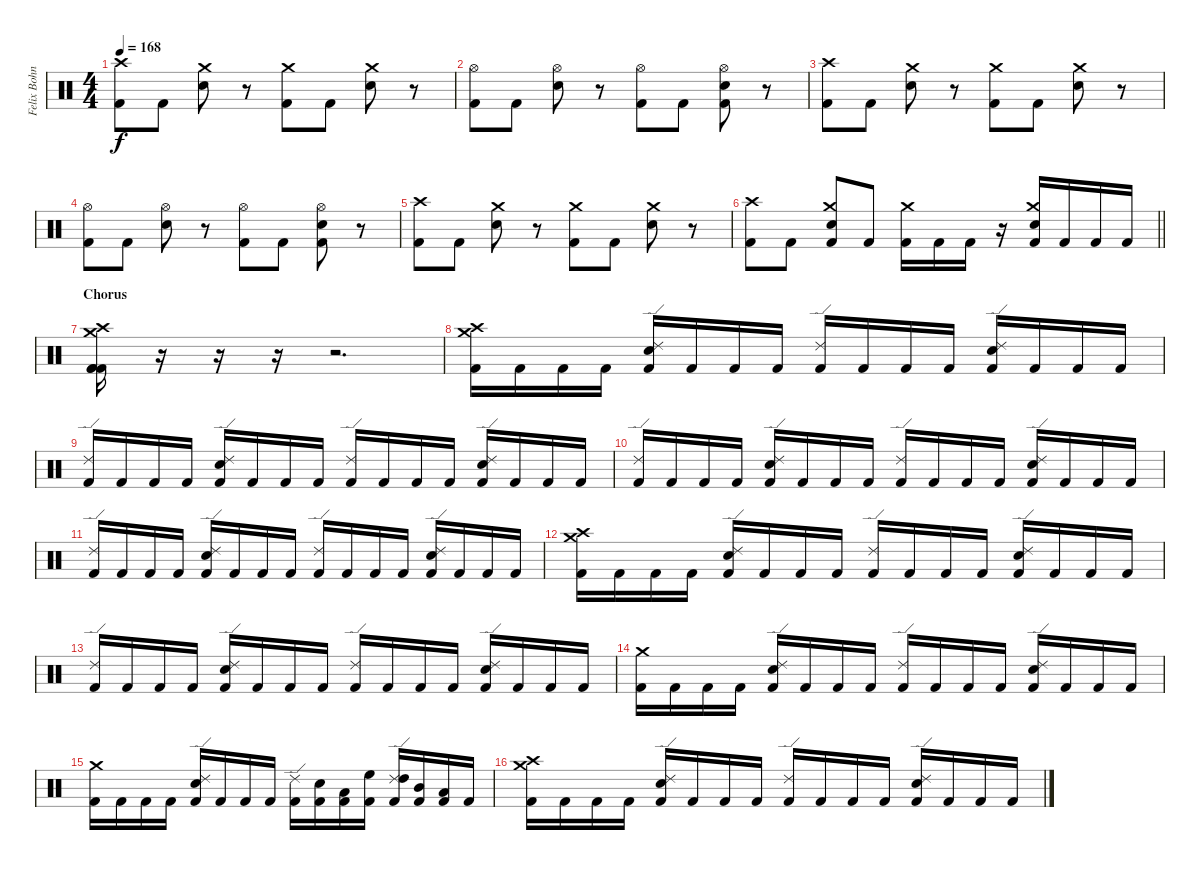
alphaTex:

\track ("Felix Bohnke" "Felix Bohn") {instrument percussion}
\staff {score}
\articulation defaults
\ts (4 4)
\tempo 168
\clef neutral
\ks c
("Crash high (hit)" "Kick (hit) 2").8{dy f} "Kick (hit) 2".8 ("Crash medium (hit)" "Snare (hit) 2").8 r.8 ("Crash medium (hit)" "Kick (hit) 2").8 "Kick (hit) 2".8 ("Crash medium (hit)" "Snare (hit) 2").8 r.8 |
("Hi-Hat (open)" "Kick (hit) 2").8 "Kick (hit) 2".8 ("Hi-Hat (open)" "Snare (hit) 2").8 r.8 ("Hi-Hat (open)" "Kick (hit) 2").8 "Kick (hit) 2".8 ("Hi-Hat (open)" "Snare (hit) 2" "Kick (hit) 2").8 r.8 |
("Crash high (hit)" "Kick (hit) 2").8 "Kick (hit) 2".8 ("Crash medium (hit)" "Snare (hit) 2").8 r.8 ("Crash medium (hit)" "Kick (hit) 2").8 "Kick (hit) 2".8 ("Crash medium (hit)" "Snare (hit) 2").8 r.8 |
("Hi-Hat (open)" "Kick (hit) 2").8 "Kick (hit) 2".8 ("Hi-Hat (open)" "Snare (hit) 2").8 r.8 ("Hi-Hat (open)" "Kick (hit) 2").8 "Kick (hit) 2".8 ("Hi-Hat (open)" "Snare (hit) 2" "Kick (hit) 2").8 r.8 |
("Crash high (hit)" "Kick (hit) 2").8 "Kick (hit) 2".8 ("Crash medium (hit)" "Snare (hit) 2").8 r.8 ("Crash medium (hit)" "Kick (hit) 2").8 "Kick (hit) 2".8 ("Crash medium (hit)" "Snare (hit) 2").8 r.8 |
\barLineRight lightlight
("Crash high (hit)" "Kick (hit) 2").8 "Kick (hit) 2".8 ("Crash medium (hit)" "Snare (hit) 2" "Kick (hit) 2").8 "Kick (hit) 2".8 ("Crash medium (hit)" "Kick (hit) 2").16 "Kick (hit) 2".16 "Kick (hit) 2".16 r.16 ("Crash medium (hit)" "Snare (hit) 2" "Kick (hit) 2").16 "Kick (hit) 2".16 "Kick (hit) 2".16 "Kick (hit) 2".16 |
\section ("" "Chorus")
("Crash high (hit)" "Crash medium (hit)" "Kick (hit) 2" "Kick (hit) 2" "Kick (hit) 2").16 r.16 r.16 r.16 r.2{d} |
("Crash high (hit)" "Crash medium (hit)" "Kick (hit) 2").16 "Kick (hit) 2".16 "Kick (hit) 2".16 "Kick (hit) 2".16 ("Ride (edge) 2" "Snare (hit) 2" "Kick (hit) 2").16 "Kick (hit) 2".16 "Kick (hit) 2".16 "Kick (hit) 2".16 ("Ride (edge) 2" "Kick (hit) 2").16 "Kick (hit) 2".16 "Kick (hit) 2".16 "Kick (hit) 2".16 ("Ride (edge) 2" "Snare (hit) 2" "Kick (hit) 2").16 "Kick (hit) 2".16 "Kick (hit) 2".16 "Kick (hit) 2".16 |
("Ride (edge) 2" "Kick (hit) 2").16 "Kick (hit) 2".16 "Kick (hit) 2".16 "Kick (hit) 2".16 ("Ride (edge) 2" "Snare (hit) 2" "Kick (hit) 2").16 "Kick (hit) 2".16 "Kick (hit) 2".16 "Kick (hit) 2".16 ("Ride (edge) 2" "Kick (hit) 2").16 "Kick (hit) 2".16 "Kick (hit) 2".16 "Kick (hit) 2".16 ("Ride (edge) 2" "Snare (hit) 2" "Kick (hit) 2").16 "Kick (hit) 2".16 "Kick (hit) 2".16 "Kick (hit) 2".16 |
("Ride (edge) 2" "Kick (hit) 2").16 "Kick (hit) 2".16 "Kick (hit) 2".16 "Kick (hit) 2".16 ("Ride (edge) 2" "Snare (hit) 2" "Kick (hit) 2").16 "Kick (hit) 2".16 "Kick (hit) 2".16 "Kick (hit) 2".16 ("Ride (edge) 2" "Kick (hit) 2").16 "Kick (hit) 2".16 "Kick (hit) 2".16 "Kick (hit) 2".16 ("Ride (edge) 2" "Snare (hit) 2" "Kick (hit) 2").16 "Kick (hit) 2".16 "Kick (hit) 2".16 "Kick (hit) 2".16 |
("Ride (edge) 2" "Kick (hit) 2").16 "Kick (hit) 2".16 "Kick (hit) 2".16 "Kick (hit) 2".16 ("Ride (edge) 2" "Snare (hit) 2" "Kick (hit) 2").16 "Kick (hit) 2".16 "Kick (hit) 2".16 "Kick (hit) 2".16 ("Ride (edge) 2" "Kick (hit) 2").16 "Kick (hit) 2".16 "Kick (hit) 2".16 "Kick (hit) 2".16 ("Ride (edge) 2" "Snare (hit) 2" "Kick (hit) 2").16 "Kick (hit) 2".16 "Kick (hit) 2".16 "Kick (hit) 2".16 |
("Crash high (hit)" "Crash medium (hit)" "Kick (hit) 2").16 "Kick (hit) 2".16 "Kick (hit) 2".16 "Kick (hit) 2".16 ("Ride (edge) 2" "Snare (hit) 2" "Kick (hit) 2").16 "Kick (hit) 2".16 "Kick (hit) 2".16 "Kick (hit) 2".16 ("Ride (edge) 2" "Kick (hit) 2").16 "Kick (hit) 2".16 "Kick (hit) 2".16 "Kick (hit) 2".16 ("Ride (edge) 2" "Snare (hit) 2" "Kick (hit) 2").16 "Kick (hit) 2".16 "Kick (hit) 2".16 "Kick (hit) 2".16 |
("Ride (edge) 2" "Kick (hit) 2").16 "Kick (hit) 2".16 "Kick (hit) 2".16 "Kick (hit) 2".16 ("Ride (edge) 2" "Snare (hit) 2" "Kick (hit) 2").16 "Kick (hit) 2".16 "Kick (hit) 2".16 "Kick (hit) 2".16 ("Ride (edge) 2" "Kick (hit) 2").16 "Kick (hit) 2".16 "Kick (hit) 2".16 "Kick (hit) 2".16 ("Ride (edge) 2" "Snare (hit) 2" "Kick (hit) 2").16 "Kick (hit) 2".16 "Kick (hit) 2".16 "Kick (hit) 2".16 |
("Crash medium (hit)" "Kick (hit) 2").16 "Kick (hit) 2".16 "Kick (hit) 2".16 "Kick (hit) 2".16 ("Ride (edge) 2" "Snare (hit) 2" "Kick (hit) 2").16 "Kick (hit) 2".16 "Kick (hit) 2".16 "Kick (hit) 2".16 ("Ride (edge) 2" "Kick (hit) 2").16 "Kick (hit) 2".16 "Kick (hit) 2".16 "Kick (hit) 2".16 ("Ride (edge) 2" "Snare (hit) 2" "Kick (hit) 2").16 "Kick (hit) 2".16 "Kick (hit) 2".16 "Kick (hit) 2".16 |
("Crash medium (hit)" "Kick (hit) 2").16 "Kick (hit) 2".16 "Kick (hit) 2".16 "Kick (hit) 2".16 ("Ride (edge) 2" "Snare (hit) 2" "Kick (hit) 2").16 "Kick (hit) 2".16 "Kick (hit) 2".16 "Kick (hit) 2".16 ("Ride (edge) 2" "Kick (hit) 2").16 ("Snare (hit) 2" "Kick (hit) 2").16 ("Low Tom (hit)" "Kick (hit) 2").16 ("High Floor Tom (hit)" "Kick (hit) 2").16 ("Ride (edge) 2" "High Tom (hit)" "Kick (hit) 2").16 ("Mid Tom (hit)" "Kick (hit) 2").16 ("Low Tom (hit)" "Kick (hit) 2").16 "Kick (hit) 2".16 |
("Crash high (hit)" "Crash medium (hit)" "Kick (hit) 2").16 "Kick (hit) 2".16 "Kick (hit) 2".16 "Kick (hit) 2".16 ("Ride (edge) 2" "Snare (hit) 2" "Kick (hit) 2").16 "Kick (hit) 2".16 "Kick (hit) 2".16 "Kick (hit) 2".16 ("Ride (edge) 2" "Kick (hit) 2").16 "Kick (hit) 2".16 "Kick (hit) 2".16 "Kick (hit) 2".16 ("Ride (edge) 2" "Snare (hit) 2" "Kick (hit) 2").16 "Kick (hit) 2".16 "Kick (hit) 2".16 "Kick (hit) 2".16
